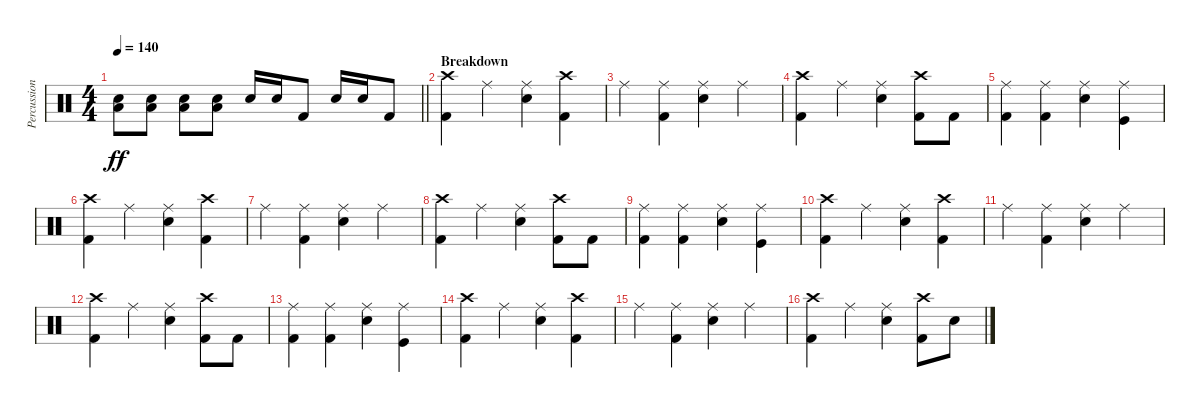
\track ("Percussion" "Percussion") {instrument percussion}
\staff {score}
\articulation defaults
\ts (4 4)
\tempo 140
\clef neutral
\barLineRight lightlight
\ks c
("Snare (hit) 2" "Low Tom (hit)").8{dy ff} ("Snare (hit) 2" "Low Tom (hit)").8 ("Snare (hit) 2" "Low Tom (hit)").8 ("Snare (hit) 2" "Low Tom (hit)").8 "Snare (hit) 2".16 "Snare (hit) 2".16 "Kick (hit) 2".8 "Snare (hit) 2".16 "Snare (hit) 2".16 "Kick (hit) 2".8 |
\section ("" "Breakdown")
("Crash high (hit)" "Kick (hit) 2").4 "Ride (middle)".4 ("Ride (middle)" "Snare (hit) 2").4 ("Crash high (hit)" "Kick (hit) 2").4 |
"Ride (middle)".4 ("Ride (middle)" "Kick (hit) 2").4 ("Ride (middle)" "Snare (hit) 2").4 "Ride (middle)".4 |
("Crash high (hit)" "Kick (hit) 2").4 "Ride (middle)".4 ("Ride (middle)" "Snare (hit) 2").4 ("Crash high (hit)" "Kick (hit) 2").8 "Kick (hit) 2".8 |
("Ride (middle)" "Kick (hit) 2").4 ("Ride (middle)" "Kick (hit) 2").4 ("Ride (middle)" "Snare (hit) 2").4 ("Ride (middle)" "Kick (hit)").4 |
("Crash high (hit)" "Kick (hit) 2").4 "Ride (middle)".4 ("Ride (middle)" "Snare (hit) 2").4 ("Crash high (hit)" "Kick (hit) 2").4 |
"Ride (middle)".4 ("Ride (middle)" "Kick (hit) 2").4 ("Ride (middle)" "Snare (hit) 2").4 "Ride (middle)".4 |
("Crash high (hit)" "Kick (hit) 2").4 "Ride (middle)".4 ("Ride (middle)" "Snare (hit) 2").4 ("Crash high (hit)" "Kick (hit) 2").8 "Kick (hit) 2".8 |
("Ride (middle)" "Kick (hit) 2").4 ("Ride (middle)" "Kick (hit) 2").4 ("Ride (middle)" "Snare (hit) 2").4 ("Ride (middle)" "Kick (hit)").4 |
("Crash high (hit)" "Kick (hit) 2").4 "Ride (middle)".4 ("Ride (middle)" "Snare (hit) 2").4 ("Crash high (hit)" "Kick (hit) 2").4 |
"Ride (middle)".4 ("Ride (middle)" "Kick (hit) 2").4 ("Ride (middle)" "Snare (hit) 2").4 "Ride (middle)".4 |
("Crash high (hit)" "Kick (hit) 2").4 "Ride (middle)".4 ("Ride (middle)" "Snare (hit) 2").4 ("Crash high (hit)" "Kick (hit) 2").8 "Kick (hit) 2".8 |
("Ride (middle)" "Kick (hit) 2").4 ("Ride (middle)" "Kick (hit) 2").4 ("Ride (middle)" "Snare (hit) 2").4 ("Ride (middle)" "Kick (hit)").4 |
("Crash high (hit)" "Kick (hit) 2").4 "Ride (middle)".4 ("Ride (middle)" "Snare (hit) 2").4 ("Crash high (hit)" "Kick (hit) 2").4 |
"Ride (middle)".4 ("Ride (middle)" "Kick (hit) 2").4 ("Ride (middle)" "Snare (hit) 2").4 "Ride (middle)".4 |
("Crash high (hit)" "Kick (hit) 2").4 "Ride (middle)".4 ("Ride (middle)" "Snare (hit) 2").4 ("Crash high (hit)" "Kick (hit) 2").8 "Snare (hit) 2".8
